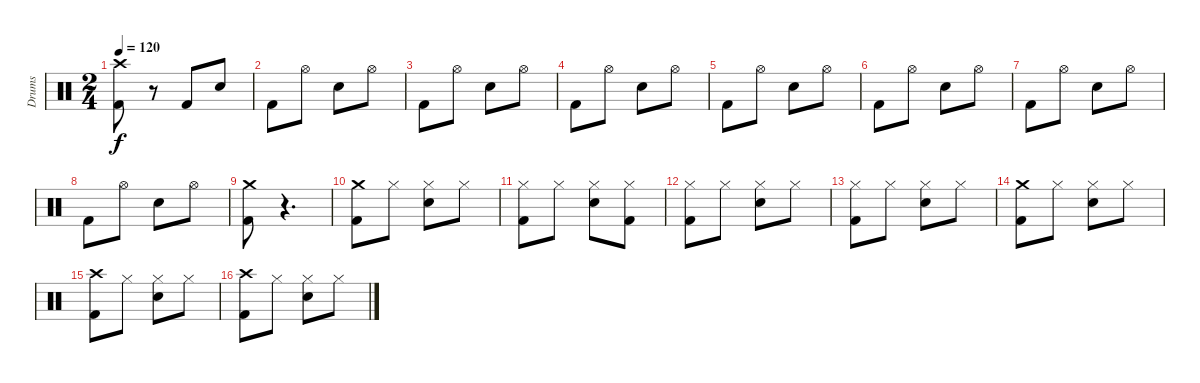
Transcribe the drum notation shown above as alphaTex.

\track ("Drums" "Drums") {instrument percussion}
\staff {score}
\articulation defaults
\ts (2 4)
\tempo 120
\clef neutral
\ks c
("Crash high (hit)" "Kick (hit) 2").8{dy f} r.8 "Kick (hit) 2".8 "Snare (hit) 2".8 |
"Kick (hit) 2".8 "Hi-Hat (open)".8 "Snare (hit) 2".8 "Hi-Hat (open)".8 |
"Kick (hit) 2".8 "Hi-Hat (open)".8 "Snare (hit) 2".8 "Hi-Hat (open)".8 |
"Kick (hit) 2".8 "Hi-Hat (open)".8 "Snare (hit) 2".8 "Hi-Hat (open)".8 |
"Kick (hit) 2".8 "Hi-Hat (open)".8 "Snare (hit) 2".8 "Hi-Hat (open)".8 |
"Kick (hit) 2".8 "Hi-Hat (open)".8 "Snare (hit) 2".8 "Hi-Hat (open)".8 |
"Kick (hit) 2".8 "Hi-Hat (open)".8 "Snare (hit) 2".8 "Hi-Hat (open)".8 |
"Kick (hit) 2".8 "Hi-Hat (open)".8 "Snare (hit) 2".8 "Hi-Hat (open)".8 |
("Crash medium (hit)" "Kick (hit) 2").8 r.4{d} |
("Crash medium (hit)" "Kick (hit) 2").8 "Hi-Hat (closed)".8 ("Snare (hit) 2" "Hi-Hat (closed)").8 "Hi-Hat (closed)".8 |
("Hi-Hat (closed)" "Kick (hit) 2").8 "Hi-Hat (closed)".8 ("Snare (hit) 2" "Hi-Hat (closed)").8 ("Kick (hit) 2" "Hi-Hat (closed)").8 |
("Kick (hit) 2" "Hi-Hat (closed)").8 "Hi-Hat (closed)".8 ("Snare (hit) 2" "Hi-Hat (closed)").8 "Hi-Hat (closed)".8 |
("Kick (hit) 2" "Hi-Hat (closed)").8 "Hi-Hat (closed)".8 ("Snare (hit) 2" "Hi-Hat (closed)").8 "Hi-Hat (closed)".8 |
("Crash medium (hit)" "Kick (hit) 2").8 "Hi-Hat (closed)".8 ("Snare (hit) 2" "Hi-Hat (closed)").8 "Hi-Hat (closed)".8 |
("Crash high (hit)" "Kick (hit) 2").8 "Hi-Hat (closed)".8 ("Snare (hit) 2" "Hi-Hat (closed)").8 "Hi-Hat (closed)".8 |
("Crash high (hit)" "Kick (hit) 2").8 "Hi-Hat (closed)".8 ("Snare (hit) 2" "Hi-Hat (closed)").8 "Hi-Hat (closed)".8
